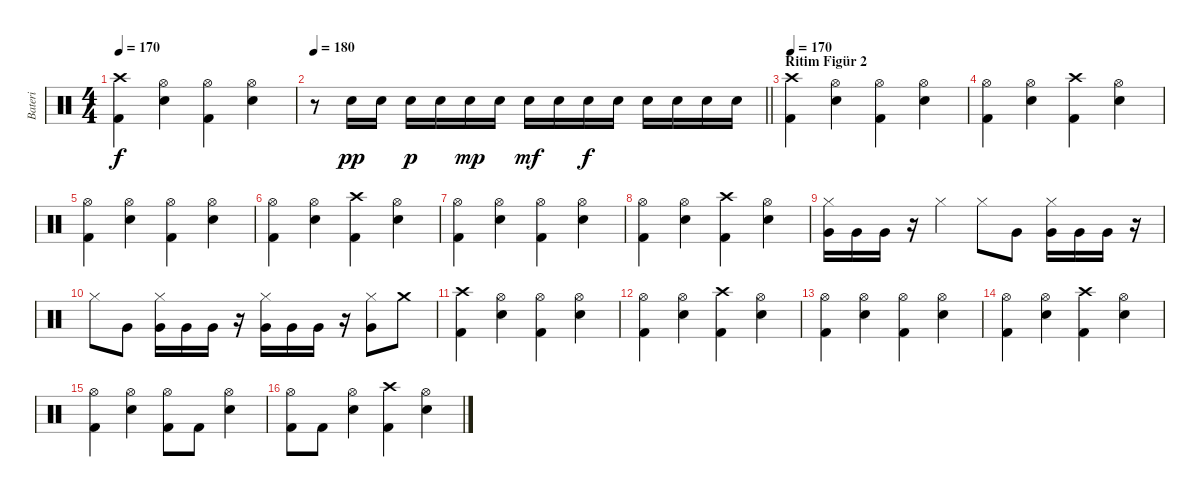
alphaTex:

\track ("Bateri" "Bateri") {instrument percussion}
\staff {score}
\articulation defaults
\ts (4 4)
\tempo 170
\clef neutral
\ks c
("Crash high (hit)" "Kick (hit) 2").4{dy f} ("Hi-Hat (open)" "Snare (hit) 2").4 ("Hi-Hat (open)" "Kick (hit) 2").4 ("Hi-Hat (open)" "Snare (hit) 2").4 |
\tempo 180
\barLineRight lightlight
r.8 "Snare (hit) 2".16{dy pp} "Snare (hit) 2".16 "Snare (hit) 2".16{dy p} "Snare (hit) 2".16 "Snare (hit) 2".16{dy mp} "Snare (hit) 2".16 "Snare (hit) 2".16{dy mf} "Snare (hit) 2".16 "Snare (hit) 2".16{dy f} "Snare (hit) 2".16 "Snare (hit) 2".16 "Snare (hit) 2".16 "Snare (hit) 2".16 "Snare (hit) 2".16 |
\section ("" "Ritim Figür 2")
\tempo 170
("Crash high (hit)" "Kick (hit) 2").4 ("Hi-Hat (open)" "Snare (hit) 2").4 ("Hi-Hat (open)" "Kick (hit) 2").4 ("Hi-Hat (open)" "Snare (hit) 2").4 |
("Hi-Hat (open)" "Kick (hit) 2").4 ("Hi-Hat (open)" "Snare (hit) 2").4 ("Crash high (hit)" "Kick (hit) 2").4 ("Hi-Hat (open)" "Snare (hit) 2").4 |
("Hi-Hat (open)" "Kick (hit) 2").4 ("Hi-Hat (open)" "Snare (hit) 2").4 ("Hi-Hat (open)" "Kick (hit) 2").4 ("Hi-Hat (open)" "Snare (hit) 2").4 |
("Hi-Hat (open)" "Kick (hit) 2").4 ("Hi-Hat (open)" "Snare (hit) 2").4 ("Crash high (hit)" "Kick (hit) 2").4 ("Hi-Hat (open)" "Snare (hit) 2").4 |
("Hi-Hat (open)" "Kick (hit) 2").4 ("Hi-Hat (open)" "Snare (hit) 2").4 ("Hi-Hat (open)" "Kick (hit) 2").4 ("Hi-Hat (open)" "Snare (hit) 2").4 |
("Hi-Hat (open)" "Kick (hit) 2").4 ("Hi-Hat (open)" "Snare (hit) 2").4 ("Crash high (hit)" "Kick (hit) 2").4 ("Hi-Hat (open)" "Snare (hit) 2").4 |
("Hi-Hat (closed)" "Very Low Tom (hit)").16 "Very Low Tom (hit)".16 "Very Low Tom (hit)".16 r.16 "Hi-Hat (closed)".4 "Hi-Hat (closed)".8 "Very Low Tom (hit)".8 ("Hi-Hat (closed)" "Very Low Tom (hit)").16 "Very Low Tom (hit)".16 "Very Low Tom (hit)".16 r.16 |
"Hi-Hat (closed)".8 "Very Low Tom (hit)".8 ("Hi-Hat (closed)" "Very Low Tom (hit)").16 "Very Low Tom (hit)".16 "Very Low Tom (hit)".16 r.16 ("Hi-Hat (closed)" "Very Low Tom (hit)").16 "Very Low Tom (hit)".16 "Very Low Tom (hit)".16 r.16 ("Hi-Hat (closed)" "Very Low Tom (hit)").8 "Crash medium (hit)".8 |
("Crash high (hit)" "Kick (hit) 2").4 ("Hi-Hat (open)" "Snare (hit) 2").4 ("Hi-Hat (open)" "Kick (hit) 2").4 ("Hi-Hat (open)" "Snare (hit) 2").4 |
("Hi-Hat (open)" "Kick (hit) 2").4 ("Hi-Hat (open)" "Snare (hit) 2").4 ("Crash high (hit)" "Kick (hit) 2").4 ("Hi-Hat (open)" "Snare (hit) 2").4 |
("Hi-Hat (open)" "Kick (hit) 2").4 ("Hi-Hat (open)" "Snare (hit) 2").4 ("Hi-Hat (open)" "Kick (hit) 2").4 ("Hi-Hat (open)" "Snare (hit) 2").4 |
("Hi-Hat (open)" "Kick (hit) 2").4 ("Hi-Hat (open)" "Snare (hit) 2").4 ("Crash high (hit)" "Kick (hit) 2").4 ("Hi-Hat (open)" "Snare (hit) 2").4 |
("Hi-Hat (open)" "Kick (hit) 2").4 ("Hi-Hat (open)" "Snare (hit) 2").4 ("Hi-Hat (open)" "Kick (hit) 2").8 "Kick (hit) 2".8 ("Hi-Hat (open)" "Snare (hit) 2").4 |
("Hi-Hat (open)" "Kick (hit) 2").8 "Kick (hit) 2".8 ("Hi-Hat (open)" "Snare (hit) 2").4 ("Crash high (hit)" "Kick (hit) 2").4 ("Hi-Hat (open)" "Snare (hit) 2").4
